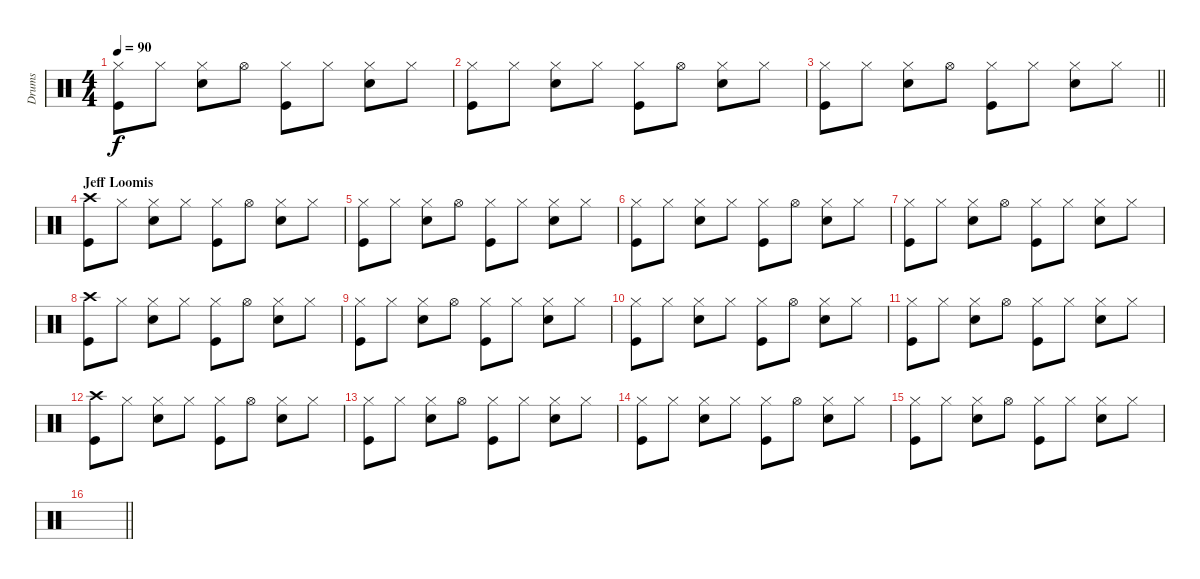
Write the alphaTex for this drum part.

\track ("Drums" "Drums") {instrument percussion}
\staff {score}
\articulation defaults
\ts (4 4)
\tempo 90
\clef neutral
\ks c
("Hi-Hat (closed)" "Kick (hit)").8{dy f} "Hi-Hat (closed)".8 ("Hi-Hat (closed)" "Snare (hit) 2").8 "Hi-Hat (open)".8 ("Hi-Hat (closed)" "Kick (hit)").8 "Hi-Hat (closed)".8 ("Hi-Hat (closed)" "Snare (hit) 2").8 "Hi-Hat (closed)".8 |
("Hi-Hat (closed)" "Kick (hit)").8 "Hi-Hat (closed)".8 ("Hi-Hat (closed)" "Snare (hit) 2").8 "Hi-Hat (closed)".8 ("Hi-Hat (closed)" "Kick (hit)").8 "Hi-Hat (open)".8 ("Hi-Hat (closed)" "Snare (hit) 2").8 "Hi-Hat (closed)".8 |
\barLineRight lightlight
("Hi-Hat (closed)" "Kick (hit)").8 "Hi-Hat (closed)".8 ("Hi-Hat (closed)" "Snare (hit) 2").8 "Hi-Hat (open)".8 ("Hi-Hat (closed)" "Kick (hit)").8 "Hi-Hat (closed)".8 ("Hi-Hat (closed)" "Snare (hit) 2").8 "Hi-Hat (closed)".8 |
\section ("" "Jeff Loomis")
("Crash high (hit)" "Kick (hit)").8 "Hi-Hat (closed)".8 ("Hi-Hat (closed)" "Snare (hit) 2").8 "Hi-Hat (closed)".8 ("Hi-Hat (closed)" "Kick (hit)").8 "Hi-Hat (open)".8 ("Hi-Hat (closed)" "Snare (hit) 2").8 "Hi-Hat (closed)".8 |
("Hi-Hat (closed)" "Kick (hit)").8 "Hi-Hat (closed)".8 ("Hi-Hat (closed)" "Snare (hit) 2").8 "Hi-Hat (open)".8 ("Hi-Hat (closed)" "Kick (hit)").8 "Hi-Hat (closed)".8 ("Hi-Hat (closed)" "Snare (hit) 2").8 "Hi-Hat (closed)".8 |
("Hi-Hat (closed)" "Kick (hit)").8 "Hi-Hat (closed)".8 ("Hi-Hat (closed)" "Snare (hit) 2").8 "Hi-Hat (closed)".8 ("Hi-Hat (closed)" "Kick (hit)").8 "Hi-Hat (open)".8 ("Hi-Hat (closed)" "Snare (hit) 2").8 "Hi-Hat (closed)".8 |
("Hi-Hat (closed)" "Kick (hit)").8 "Hi-Hat (closed)".8 ("Hi-Hat (closed)" "Snare (hit) 2").8 "Hi-Hat (open)".8 ("Hi-Hat (closed)" "Kick (hit)").8 "Hi-Hat (closed)".8 ("Hi-Hat (closed)" "Snare (hit) 2").8 "Hi-Hat (closed)".8 |
("Crash high (hit)" "Kick (hit)").8 "Hi-Hat (closed)".8 ("Hi-Hat (closed)" "Snare (hit) 2").8 "Hi-Hat (closed)".8 ("Hi-Hat (closed)" "Kick (hit)").8 "Hi-Hat (open)".8 ("Hi-Hat (closed)" "Snare (hit) 2").8 "Hi-Hat (closed)".8 |
("Hi-Hat (closed)" "Kick (hit)").8 "Hi-Hat (closed)".8 ("Hi-Hat (closed)" "Snare (hit) 2").8 "Hi-Hat (open)".8 ("Hi-Hat (closed)" "Kick (hit)").8 "Hi-Hat (closed)".8 ("Hi-Hat (closed)" "Snare (hit) 2").8 "Hi-Hat (closed)".8 |
("Hi-Hat (closed)" "Kick (hit)").8 "Hi-Hat (closed)".8 ("Hi-Hat (closed)" "Snare (hit) 2").8 "Hi-Hat (closed)".8 ("Hi-Hat (closed)" "Kick (hit)").8 "Hi-Hat (open)".8 ("Hi-Hat (closed)" "Snare (hit) 2").8 "Hi-Hat (closed)".8 |
("Hi-Hat (closed)" "Kick (hit)").8 "Hi-Hat (closed)".8 ("Hi-Hat (closed)" "Snare (hit) 2").8 "Hi-Hat (open)".8 ("Hi-Hat (closed)" "Kick (hit)").8 "Hi-Hat (closed)".8 ("Hi-Hat (closed)" "Snare (hit) 2").8 "Hi-Hat (closed)".8 |
("Crash high (hit)" "Kick (hit)").8 "Hi-Hat (closed)".8 ("Hi-Hat (closed)" "Snare (hit) 2").8 "Hi-Hat (closed)".8 ("Hi-Hat (closed)" "Kick (hit)").8 "Hi-Hat (open)".8 ("Hi-Hat (closed)" "Snare (hit) 2").8 "Hi-Hat (closed)".8 |
("Hi-Hat (closed)" "Kick (hit)").8 "Hi-Hat (closed)".8 ("Hi-Hat (closed)" "Snare (hit) 2").8 "Hi-Hat (open)".8 ("Hi-Hat (closed)" "Kick (hit)").8 "Hi-Hat (closed)".8 ("Hi-Hat (closed)" "Snare (hit) 2").8 "Hi-Hat (closed)".8 |
("Hi-Hat (closed)" "Kick (hit)").8 "Hi-Hat (closed)".8 ("Hi-Hat (closed)" "Snare (hit) 2").8 "Hi-Hat (closed)".8 ("Hi-Hat (closed)" "Kick (hit)").8 "Hi-Hat (open)".8 ("Hi-Hat (closed)" "Snare (hit) 2").8 "Hi-Hat (closed)".8 |
("Hi-Hat (closed)" "Kick (hit)").8 "Hi-Hat (closed)".8 ("Hi-Hat (closed)" "Snare (hit) 2").8 "Hi-Hat (open)".8 ("Hi-Hat (closed)" "Kick (hit)").8 "Hi-Hat (closed)".8 ("Hi-Hat (closed)" "Snare (hit) 2").8 "Hi-Hat (closed)".8 |
\barLineRight lightlight
